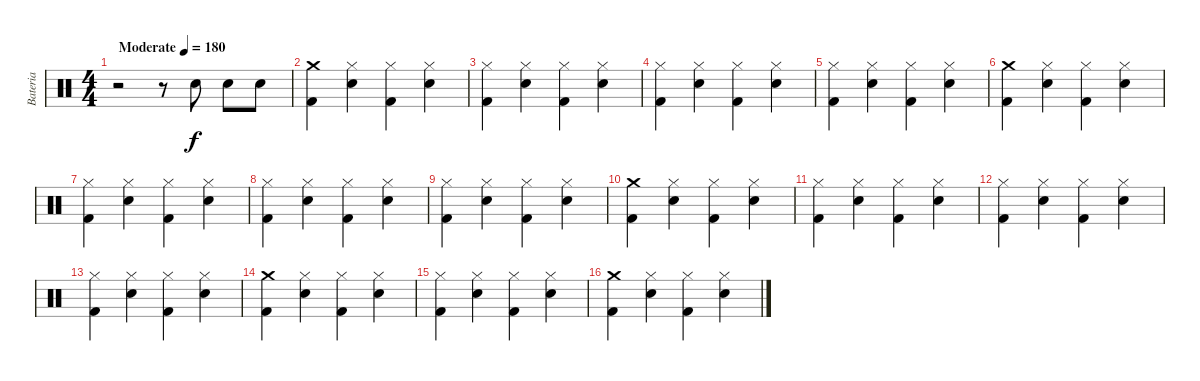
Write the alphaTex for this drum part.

\track ("Bateria" "Bateria") {instrument percussion}
\staff {score}
\articulation defaults
\ts (4 4)
\tempo (180 "Moderate")
\clef neutral
\ks c
r.2{dy f} r.8 "Electric Snare (hit)".8 "Electric Snare (hit)".8 "Electric Snare (hit)".8 |
("Crash medium (hit)" "Kick (hit) 2").4 ("Hi-Hat (closed)" "Electric Snare (hit)").4 ("Hi-Hat (closed)" "Kick (hit) 2").4 ("Hi-Hat (closed)" "Electric Snare (hit)").4 |
("Hi-Hat (closed)" "Kick (hit) 2").4 ("Hi-Hat (closed)" "Electric Snare (hit)").4 ("Hi-Hat (closed)" "Kick (hit) 2").4 ("Hi-Hat (closed)" "Electric Snare (hit)").4 |
("Hi-Hat (closed)" "Kick (hit) 2").4 ("Hi-Hat (closed)" "Electric Snare (hit)").4 ("Hi-Hat (closed)" "Kick (hit) 2").4 ("Hi-Hat (closed)" "Electric Snare (hit)").4 |
("Hi-Hat (closed)" "Kick (hit) 2").4 ("Hi-Hat (closed)" "Electric Snare (hit)").4 ("Hi-Hat (closed)" "Kick (hit) 2").4 ("Hi-Hat (closed)" "Electric Snare (hit)").4 |
("Crash medium (hit)" "Kick (hit) 2").4 ("Hi-Hat (closed)" "Electric Snare (hit)").4 ("Hi-Hat (closed)" "Kick (hit) 2").4 ("Hi-Hat (closed)" "Electric Snare (hit)").4 |
("Hi-Hat (closed)" "Kick (hit) 2").4 ("Hi-Hat (closed)" "Electric Snare (hit)").4 ("Hi-Hat (closed)" "Kick (hit) 2").4 ("Hi-Hat (closed)" "Electric Snare (hit)").4 |
("Hi-Hat (closed)" "Kick (hit) 2").4 ("Hi-Hat (closed)" "Electric Snare (hit)").4 ("Hi-Hat (closed)" "Kick (hit) 2").4 ("Hi-Hat (closed)" "Electric Snare (hit)").4 |
("Hi-Hat (closed)" "Kick (hit) 2").4 ("Hi-Hat (closed)" "Electric Snare (hit)").4 ("Hi-Hat (closed)" "Kick (hit) 2").4 ("Hi-Hat (closed)" "Electric Snare (hit)").4 |
("Crash medium (hit)" "Kick (hit) 2").4 ("Hi-Hat (closed)" "Electric Snare (hit)").4 ("Hi-Hat (closed)" "Kick (hit) 2").4 ("Hi-Hat (closed)" "Electric Snare (hit)").4 |
("Hi-Hat (closed)" "Kick (hit) 2").4 ("Hi-Hat (closed)" "Electric Snare (hit)").4 ("Hi-Hat (closed)" "Kick (hit) 2").4 ("Hi-Hat (closed)" "Electric Snare (hit)").4 |
("Hi-Hat (closed)" "Kick (hit) 2").4 ("Hi-Hat (closed)" "Electric Snare (hit)").4 ("Hi-Hat (closed)" "Kick (hit) 2").4 ("Hi-Hat (closed)" "Electric Snare (hit)").4 |
("Hi-Hat (closed)" "Kick (hit) 2").4 ("Hi-Hat (closed)" "Electric Snare (hit)").4 ("Hi-Hat (closed)" "Kick (hit) 2").4 ("Hi-Hat (closed)" "Electric Snare (hit)").4 |
("Crash medium (hit)" "Kick (hit) 2").4 ("Hi-Hat (closed)" "Electric Snare (hit)").4 ("Hi-Hat (closed)" "Kick (hit) 2").4 ("Hi-Hat (closed)" "Electric Snare (hit)").4 |
("Hi-Hat (closed)" "Kick (hit) 2").4 ("Hi-Hat (closed)" "Electric Snare (hit)").4 ("Hi-Hat (closed)" "Kick (hit) 2").4 ("Hi-Hat (closed)" "Electric Snare (hit)").4 |
("Crash medium (hit)" "Kick (hit) 2").4 ("Hi-Hat (closed)" "Electric Snare (hit)").4 ("Hi-Hat (closed)" "Kick (hit) 2").4 ("Hi-Hat (closed)" "Electric Snare (hit)").4
